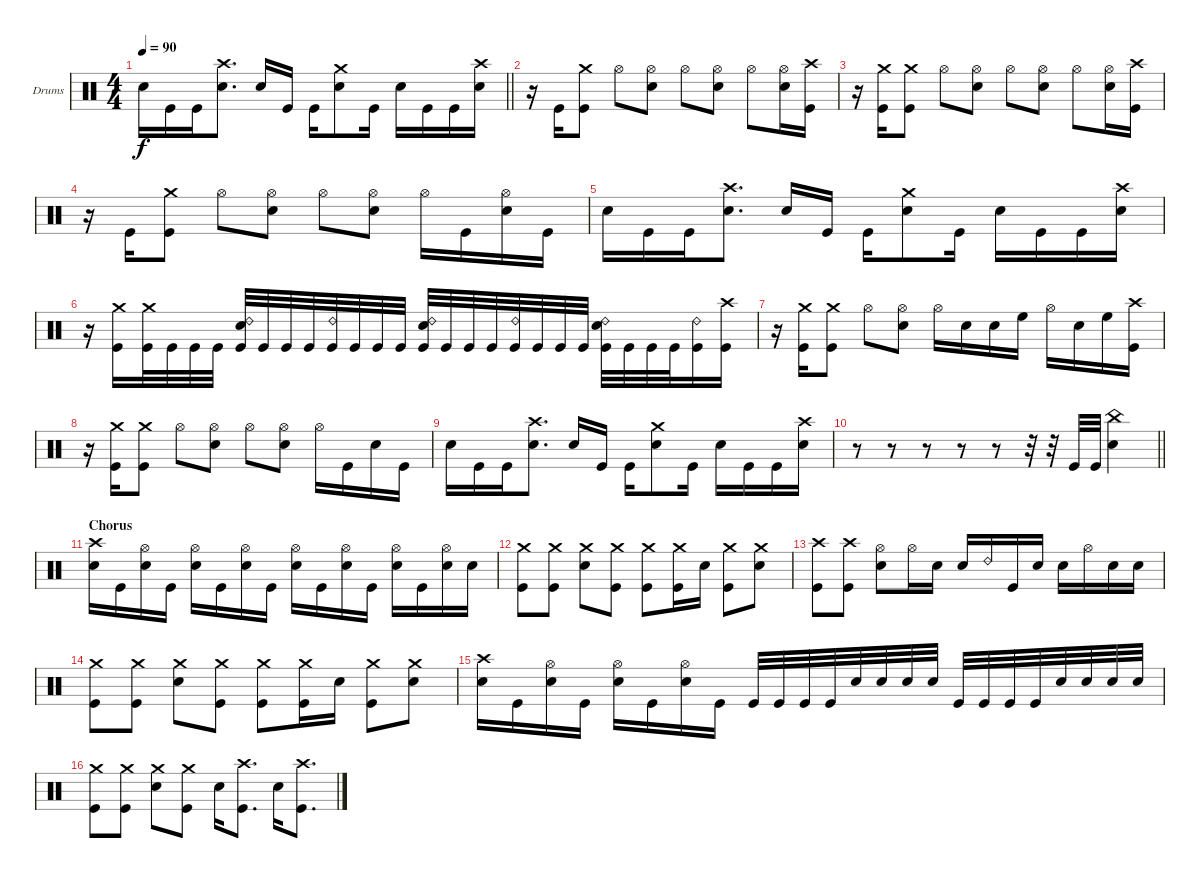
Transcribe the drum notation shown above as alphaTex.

\bracketExtendMode groupsimilarinstruments
\firstSystemTrackNameOrientation horizontal
\otherSystemsTrackNameOrientation horizontal
\track ("Drumkit" "Drums") {instrument percussion}
\staff {score}
\articulation defaults
\ts (4 4)
\tempo 90
\clef neutral
\barLineRight lightlight
\ks c "Snare (hit) 2".16{dy f} "Kick (hit)".16 "Kick (hit)".16
("Crash high (hit)" "Snare (hit) 2").8{d} "Snare (hit) 2".16 "Kick (hit)".16 "Kick (hit)".16 ("Crash medium (hit)" "Snare (hit) 2").8 "Kick (hit)".16 "Snare (hit) 2".16 "Kick (hit)".16 "Kick (hit)".16 ("Crash high (hit)" "Snare (hit) 2").16 |
r.16 "Kick (hit)".16 ("Crash medium (hit)" "Kick (hit)").8 "Hi-Hat (open)".8 ("Hi-Hat (open)" "Snare (hit) 2").8 "Hi-Hat (open)".8 ("Hi-Hat (open)" "Snare (hit) 2").8 "Hi-Hat (open)".8 ("Hi-Hat (open)" "Snare (hit) 2").16 ("Crash high (hit)" "Kick (hit)").16 |
r.16 ("Crash medium (hit)" "Kick (hit)").16 ("Crash medium (hit)" "Kick (hit)").8 "Hi-Hat (open)".8 ("Hi-Hat (open)" "Snare (hit) 2").8 "Hi-Hat (open)".8 ("Hi-Hat (open)" "Snare (hit) 2").8 "Hi-Hat (open)".8 ("Hi-Hat (open)" "Snare (hit) 2").16 ("Crash high (hit)" "Kick (hit)").16 |
r.16 "Kick (hit)".16 ("Crash medium (hit)" "Kick (hit)").8 "Hi-Hat (open)".8 ("Hi-Hat (open)" "Snare (hit) 2").8 "Hi-Hat (open)".8 ("Hi-Hat (open)" "Snare (hit) 2").8 "Hi-Hat (open)".16 "Kick (hit)".16 ("Hi-Hat (open)" "Snare (hit) 2").16 "Kick (hit)".16 |
"Snare (hit) 2".16 "Kick (hit)".16 "Kick (hit)".16 ("Crash high (hit)" "Snare (hit) 2").8{d} "Snare (hit) 2".16 "Kick (hit)".16 "Kick (hit)".16 ("Crash medium (hit)" "Snare (hit) 2").8 "Kick (hit)".16 "Snare (hit) 2".16 "Kick (hit)".16 "Kick (hit)".16 ("Crash high (hit)" "Snare (hit) 2").16 |
r.16 ("Crash medium (hit)" "Kick (hit)").16 ("Crash medium (hit)" "Kick (hit)").32 "Kick (hit)".32 "Kick (hit)".32 "Kick (hit)".32 ("Ride (bell) 2" "Snare (hit) 2" "Kick (hit)").32 "Kick (hit)".32 "Kick (hit)".32 "Kick (hit)".32 ("Ride (bell) 2" "Kick (hit)").32 "Kick (hit)".32 "Kick (hit)".32 "Kick (hit)".32 ("Ride (bell) 2" "Snare (hit) 2" "Kick (hit)").32 "Kick (hit)".32 "Kick (hit)".32 "Kick (hit)".32 ("Ride (bell) 2" "Kick (hit)").32 "Kick (hit)".32 "Kick (hit)".32 "Kick (hit)".32 ("Ride (bell) 2" "Snare (hit) 2" "Kick (hit)").32 "Kick (hit)".32 "Kick (hit)".32 "Kick (hit)".32 ("Ride (bell) 2" "Kick (hit)").16 ("Crash high (hit)" "Kick (hit)").16 |
r.16 ("Crash medium (hit)" "Kick (hit)").16 ("Crash medium (hit)" "Kick (hit)").8 "Hi-Hat (open)".8 ("Hi-Hat (open)" "Snare (hit) 2").8 "Hi-Hat (open)".16 "Snare (hit) 2".16 "Snare (hit) 2".16 "High Floor Tom (hit)".16 "Hi-Hat (open)".16 "Snare (hit) 2".16 "High Floor Tom (hit)".16 ("Crash high (hit)" "Kick (hit)").16 |
r.16 ("Crash medium (hit)" "Kick (hit)").16 ("Crash medium (hit)" "Kick (hit)").8 "Hi-Hat (open)".8 ("Hi-Hat (open)" "Snare (hit) 2").8 "Hi-Hat (open)".8 ("Hi-Hat (open)" "Snare (hit) 2").8 "Hi-Hat (open)".16 "Kick (hit)".16 "Snare (hit) 2".16 "Kick (hit)".16 |
"Snare (hit) 2".16 "Kick (hit)".16 "Kick (hit)".16 ("Crash high (hit)" "Snare (hit) 2").8{d} "Snare (hit) 2".16 "Kick (hit)".16 "Kick (hit)".16 ("Crash medium (hit)" "Snare (hit) 2").8 "Kick (hit)".16 "Snare (hit) 2".16 "Kick (hit)".16 "Kick (hit)".16 ("Crash high (hit)" "Snare (hit) 2").16 |
\barLineRight lightlight
r.8 r.8 r.8 r.8 r.8 r.32 r.32 "Kick (hit)".32 "Kick (hit)".32 ("China (hit)" "Snare (hit) 2").4 |
\section ("" "Chorus")
("Crash high (hit)" "Snare (hit) 2").16 "Kick (hit)".16 ("Hi-Hat (open)" "Snare (hit) 2").16 "Kick (hit)".16 ("Hi-Hat (open)" "Snare (hit) 2").16 "Kick (hit)".16 ("Hi-Hat (open)" "Snare (hit) 2").16 "Kick (hit)".16 ("Hi-Hat (open)" "Snare (hit) 2").16 "Kick (hit)".16 ("Hi-Hat (open)" "Snare (hit) 2").16 "Kick (hit)".16 ("Hi-Hat (open)" "Snare (hit) 2").16 "Kick (hit)".16 ("Hi-Hat (open)" "Snare (hit) 2").16 "Snare (hit) 2".16 |
("Crash medium (hit)" "Kick (hit)").8 ("Crash medium (hit)" "Kick (hit)").8 ("Crash medium (hit)" "Snare (hit) 2").8 ("Crash medium (hit)" "Kick (hit)").8 ("Crash medium (hit)" "Kick (hit)").8 ("Crash medium (hit)" "Kick (hit)").16 "Snare (hit) 2".16 ("Crash medium (hit)" "Kick (hit)").8 ("Crash medium (hit)" "Snare (hit) 2").8 |
("Crash high (hit)" "Kick (hit)").8 ("Crash high (hit)" "Kick (hit)").8 ("Hi-Hat (open)" "Snare (hit) 2").8 "Hi-Hat (open)".16 "Snare (hit) 2".16 "Snare (hit) 2".16 "Ride (bell) 2".16 "Kick (hit)".16 "Snare (hit) 2".16 "Snare (hit) 2".16 "Hi-Hat (open)".16 "Snare (hit) 2".16 "Snare (hit) 2".16 |
("Crash medium (hit)" "Kick (hit)").8 ("Crash medium (hit)" "Kick (hit)").8 ("Crash medium (hit)" "Snare (hit) 2").8 ("Crash medium (hit)" "Kick (hit)").8 ("Crash medium (hit)" "Kick (hit)").8 ("Crash medium (hit)" "Kick (hit)").16 "Snare (hit) 2".16 ("Crash medium (hit)" "Kick (hit)").8 ("Crash medium (hit)" "Snare (hit) 2").8 |
("Crash high (hit)" "Snare (hit) 2").16 "Kick (hit)".16 ("Hi-Hat (open)" "Snare (hit) 2").16 "Kick (hit)".16 ("Hi-Hat (open)" "Snare (hit) 2").16 "Kick (hit)".16 ("Hi-Hat (open)" "Snare (hit) 2").16 "Kick (hit)".16 "Kick (hit)".32 "Kick (hit)".32 "Kick (hit)".32 "Kick (hit)".32 "Snare (hit) 2".32 "Snare (hit) 2".32 "Snare (hit) 2".32 "Snare (hit) 2".32 "Kick (hit)".32 "Kick (hit)".32 "Kick (hit)".32 "Kick (hit)".32 "Snare (hit) 2".32 "Snare (hit) 2".32 "Snare (hit) 2".32 "Snare (hit) 2".32 |
("Crash medium (hit)" "Kick (hit)").8 ("Crash medium (hit)" "Kick (hit)").8 ("Crash medium (hit)" "Snare (hit) 2").8 ("Crash medium (hit)" "Kick (hit)").8 "Snare (hit) 2".16 ("Crash high (hit)" "Kick (hit)").8{d} "Snare (hit) 2".16 ("Crash high (hit)" "Kick (hit)").8{d}
